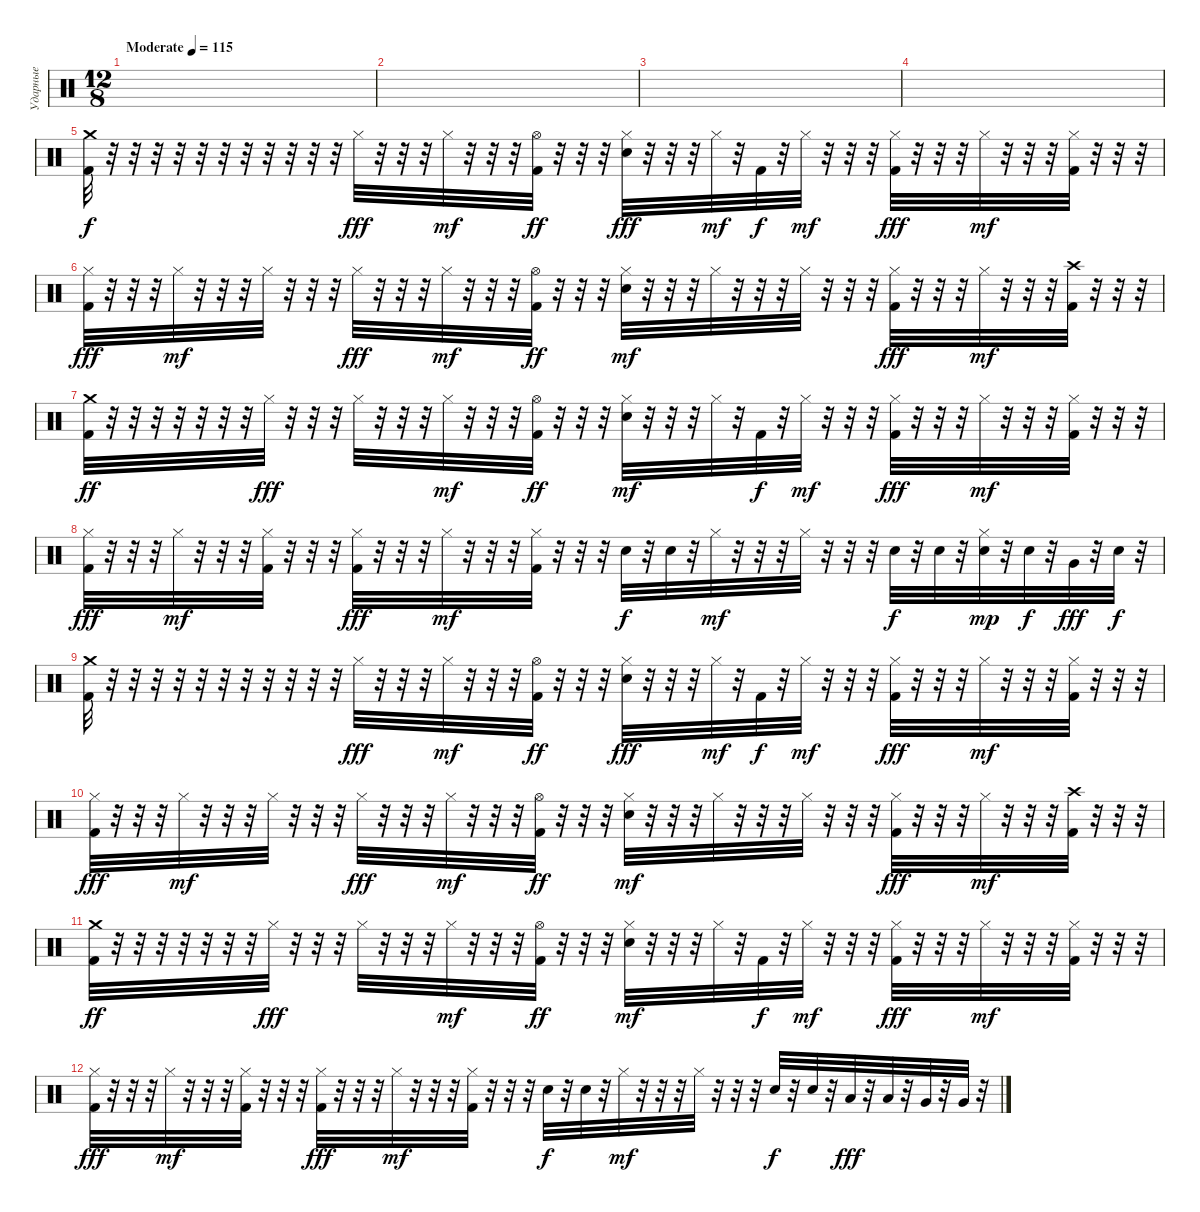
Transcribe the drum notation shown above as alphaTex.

\track ("Ударные" "Ударные") {instrument percussion}
\staff {score}
\articulation defaults
\ts (12 8)
\tempo (115 "Moderate")
\clef neutral
\ks c
|
|
|
|
("Crash medium (hit)" "Kick (hit) 2").32 r.32 r.32 r.32 r.32 r.32 r.32 r.32 r.32 r.32 r.32 r.32 "Hi-Hat (closed)".32{dy fff} r.32 r.32 r.32 "Hi-Hat (closed)".32{dy mf} r.32 r.32 r.32 ("Hi-Hat (open)" "Kick (hit) 2").32{dy ff} r.32 r.32 r.32 ("Hi-Hat (closed)" "Electric Snare (hit)").32{dy fff} r.32 r.32 r.32 "Hi-Hat (closed)".32{dy mf} r.32 "Kick (hit) 2".32{dy f} r.32 "Hi-Hat (closed)".32{dy mf} r.32 r.32 r.32 ("Hi-Hat (closed)" "Kick (hit) 2").32{dy fff} r.32 r.32 r.32 "Hi-Hat (closed)".32{dy mf} r.32 r.32 r.32 ("Hi-Hat (closed)" "Kick (hit) 2").32 r.32 r.32 r.32 |
("Hi-Hat (closed)" "Kick (hit) 2").32{dy fff} r.32 r.32 r.32 "Hi-Hat (closed)".32{dy mf} r.32 r.32 r.32 "Hi-Hat (closed)".32 r.32 r.32 r.32 "Hi-Hat (closed)".32{dy fff} r.32 r.32 r.32 "Hi-Hat (closed)".32{dy mf} r.32 r.32 r.32 ("Hi-Hat (open)" "Kick (hit) 2").32{dy ff} r.32 r.32 r.32 ("Hi-Hat (closed)" "Electric Snare (hit)").32{dy mf} r.32 r.32 r.32 "Hi-Hat (closed)".32 r.32 r.32 r.32 "Hi-Hat (closed)".32 r.32 r.32 r.32 ("Hi-Hat (closed)" "Kick (hit) 2").32{dy fff} r.32 r.32 r.32 "Hi-Hat (closed)".32{dy mf} r.32 r.32 r.32 ("Crash high (hit)" "Kick (hit) 2").32 r.32 r.32 r.32 |
("Crash medium (hit)" "Kick (hit) 2").32{dy ff} r.32 r.32 r.32 r.32 r.32 r.32 r.32 "Hi-Hat (closed)".32{dy fff} r.32 r.32 r.32 "Hi-Hat (closed)".32 r.32 r.32 r.32 "Hi-Hat (closed)".32{dy mf} r.32 r.32 r.32 ("Hi-Hat (open)" "Kick (hit) 2").32{dy ff} r.32 r.32 r.32 ("Hi-Hat (closed)" "Electric Snare (hit)").32{dy mf} r.32 r.32 r.32 "Hi-Hat (closed)".32 r.32 "Kick (hit) 2".32{dy f} r.32 "Hi-Hat (closed)".32{dy mf} r.32 r.32 r.32 ("Hi-Hat (closed)" "Kick (hit) 2").32{dy fff} r.32 r.32 r.32 "Hi-Hat (closed)".32{dy mf} r.32 r.32 r.32 ("Hi-Hat (closed)" "Kick (hit) 2").32 r.32 r.32 r.32 |
("Hi-Hat (closed)" "Kick (hit) 2").32{dy fff} r.32 r.32 r.32 "Hi-Hat (closed)".32{dy mf} r.32 r.32 r.32 ("Hi-Hat (closed)" "Kick (hit) 2").32 r.32 r.32 r.32 ("Hi-Hat (closed)" "Kick (hit) 2").32{dy fff} r.32 r.32 r.32 "Hi-Hat (closed)".32{dy mf} r.32 r.32 r.32 ("Hi-Hat (closed)" "Kick (hit) 2").32 r.32 r.32 r.32 "Electric Snare (hit)".32{dy f} r.32 "Electric Snare (hit)".32 r.32 "Hi-Hat (closed)".32{dy mf} r.32 r.32 r.32 "Hi-Hat (closed)".32 r.32 r.32 r.32 "Electric Snare (hit)".32{dy f} r.32 "Electric Snare (hit)".32 r.32 ("Hi-Hat (closed)" "Electric Snare (hit)").32{dy mp} r.32 "Electric Snare (hit)".32{dy f} r.32 "Very Low Tom (hit)".32{dy fff} r.32 "Electric Snare (hit)".32{dy f} r.32 |
("Crash medium (hit)" "Kick (hit) 2").32 r.32 r.32 r.32 r.32 r.32 r.32 r.32 r.32 r.32 r.32 r.32 "Hi-Hat (closed)".32{dy fff} r.32 r.32 r.32 "Hi-Hat (closed)".32{dy mf} r.32 r.32 r.32 ("Hi-Hat (open)" "Kick (hit) 2").32{dy ff} r.32 r.32 r.32 ("Hi-Hat (closed)" "Electric Snare (hit)").32{dy fff} r.32 r.32 r.32 "Hi-Hat (closed)".32{dy mf} r.32 "Kick (hit) 2".32{dy f} r.32 "Hi-Hat (closed)".32{dy mf} r.32 r.32 r.32 ("Hi-Hat (closed)" "Kick (hit) 2").32{dy fff} r.32 r.32 r.32 "Hi-Hat (closed)".32{dy mf} r.32 r.32 r.32 ("Hi-Hat (closed)" "Kick (hit) 2").32 r.32 r.32 r.32 |
("Hi-Hat (closed)" "Kick (hit) 2").32{dy fff} r.32 r.32 r.32 "Hi-Hat (closed)".32{dy mf} r.32 r.32 r.32 "Hi-Hat (closed)".32 r.32 r.32 r.32 "Hi-Hat (closed)".32{dy fff} r.32 r.32 r.32 "Hi-Hat (closed)".32{dy mf} r.32 r.32 r.32 ("Hi-Hat (open)" "Kick (hit) 2").32{dy ff} r.32 r.32 r.32 ("Hi-Hat (closed)" "Electric Snare (hit)").32{dy mf} r.32 r.32 r.32 "Hi-Hat (closed)".32 r.32 r.32 r.32 "Hi-Hat (closed)".32 r.32 r.32 r.32 ("Hi-Hat (closed)" "Kick (hit) 2").32{dy fff} r.32 r.32 r.32 "Hi-Hat (closed)".32{dy mf} r.32 r.32 r.32 ("Crash high (hit)" "Kick (hit) 2").32 r.32 r.32 r.32 |
("Crash medium (hit)" "Kick (hit) 2").32{dy ff} r.32 r.32 r.32 r.32 r.32 r.32 r.32 "Hi-Hat (closed)".32{dy fff} r.32 r.32 r.32 "Hi-Hat (closed)".32 r.32 r.32 r.32 "Hi-Hat (closed)".32{dy mf} r.32 r.32 r.32 ("Hi-Hat (open)" "Kick (hit) 2").32{dy ff} r.32 r.32 r.32 ("Hi-Hat (closed)" "Electric Snare (hit)").32{dy mf} r.32 r.32 r.32 "Hi-Hat (closed)".32 r.32 "Kick (hit) 2".32{dy f} r.32 "Hi-Hat (closed)".32{dy mf} r.32 r.32 r.32 ("Hi-Hat (closed)" "Kick (hit) 2").32{dy fff} r.32 r.32 r.32 "Hi-Hat (closed)".32{dy mf} r.32 r.32 r.32 ("Hi-Hat (closed)" "Kick (hit) 2").32 r.32 r.32 r.32 |
("Hi-Hat (closed)" "Kick (hit) 2").32{dy fff} r.32 r.32 r.32 "Hi-Hat (closed)".32{dy mf} r.32 r.32 r.32 ("Hi-Hat (closed)" "Kick (hit) 2").32 r.32 r.32 r.32 ("Hi-Hat (closed)" "Kick (hit) 2").32{dy fff} r.32 r.32 r.32 "Hi-Hat (closed)".32{dy mf} r.32 r.32 r.32 ("Hi-Hat (closed)" "Kick (hit) 2").32 r.32 r.32 r.32 "Electric Snare (hit)".32{dy f} r.32 "Electric Snare (hit)".32 r.32 "Hi-Hat (closed)".32{dy mf} r.32 r.32 r.32 "Hi-Hat (closed)".32 r.32 r.32 r.32 "Electric Snare (hit)".32{dy f} r.32 "Electric Snare (hit)".32 r.32 "Low Tom (hit)".32{dy fff} r.32 "Low Tom (hit)".32 r.32 "Very Low Tom (hit)".32 r.32 "Very Low Tom (hit)".32 r.32
